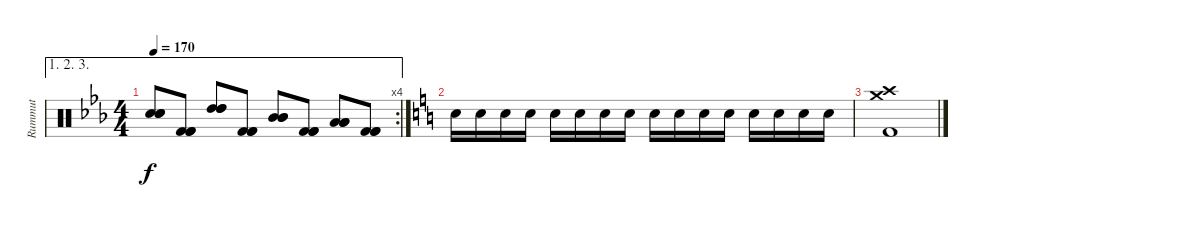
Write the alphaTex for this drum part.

\track ("Rummut" "Rummut") {instrument percussion}
\staff {score}
\articulation defaults
\ae (1 2 3)
\rc 4
\ts (4 4)
\tempo 170
\clef neutral
\ks eb
("Snare (hit) 2" "Snare (hit) 2" "Snare (hit) 2").8{dy f} ("Kick (hit) 2" "Kick (hit) 2" "Kick (hit) 2").8 ("High Tom (hit)" "High Tom (hit)" "High Tom (hit)").8 ("Kick (hit) 2" "Kick (hit) 2" "Kick (hit) 2").8 ("Mid Tom (hit)" "Mid Tom (hit)" "Mid Tom (hit)").8 ("Kick (hit) 2" "Kick (hit) 2" "Kick (hit) 2").8 ("Low Floor Tom (hit)" "Low Floor Tom (hit)" "Low Floor Tom (hit)").8 ("Kick (hit) 2" "Kick (hit) 2" "Kick (hit) 2").8 |
\ks c "Snare (hit) 2".16 "Snare (hit) 2".16 "Snare (hit) 2".16 "Snare (hit) 2".16 "Snare (hit) 2".16 "Snare (hit) 2".16 "Snare (hit) 2".16 "Snare (hit) 2".16 "Snare (hit) 2".16 "Snare (hit) 2".16 "Snare (hit) 2".16 "Snare (hit) 2".16 "Snare (hit) 2".16 "Snare (hit) 2".16 "Snare (hit) 2".16 "Snare (hit) 2".16
|
("Crash medium (hit)" "Crash high (hit)" "Kick (hit) 2").1
